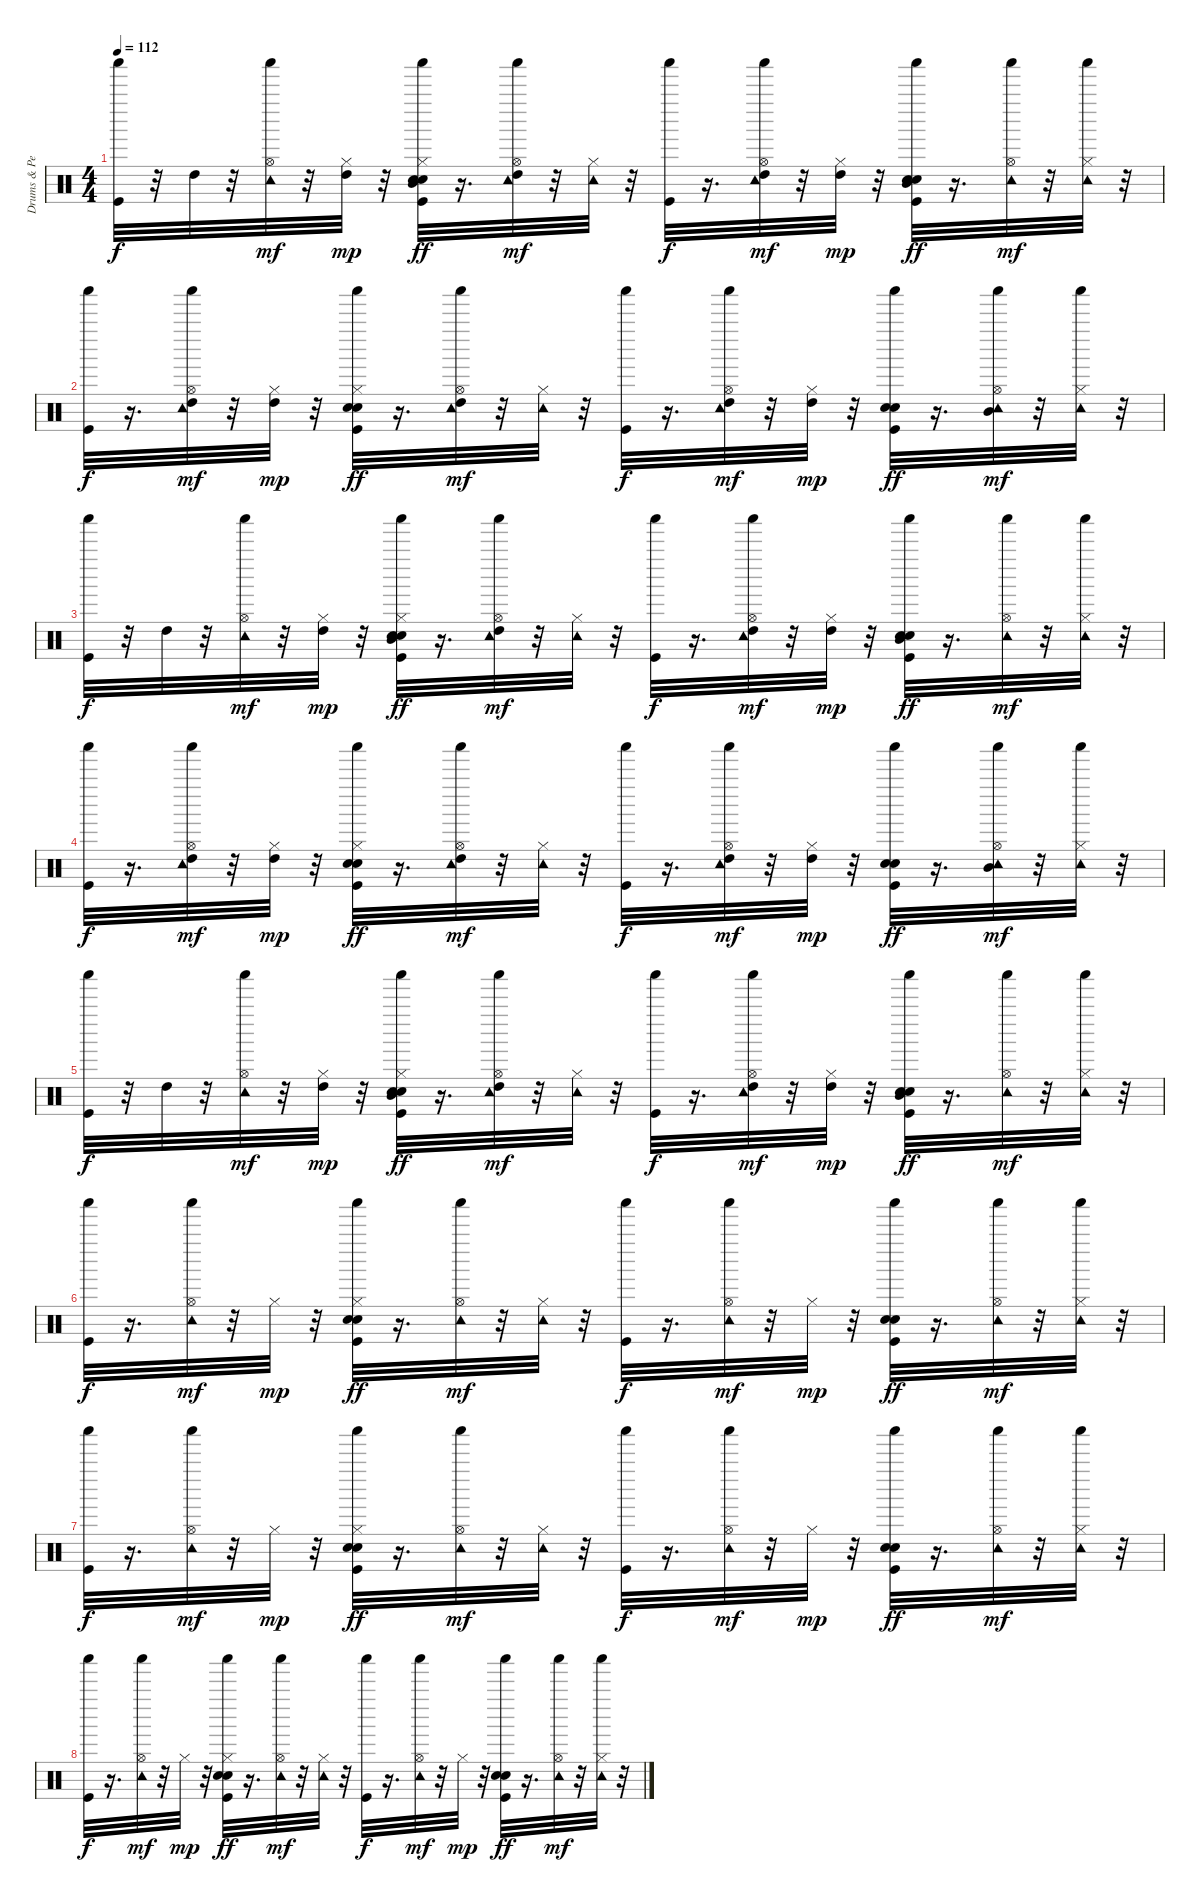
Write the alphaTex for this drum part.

\track ("Drums & Percussion" "Drums & Pe") {instrument percussion}
\staff {score}
\articulation defaults
\ts (4 4)
\tempo 112
\clef neutral
\ks c
("Shaker (hit)" "Kick (hit)").32{dy f} r.32 "High Tom (hit)".32 r.32 ("Shaker (hit)" "Hi-Hat (open)" "Tambourine (hit)").32{dy mf} r.32 ("Hi-Hat (closed)" "High Tom (hit)").32{dy mp} r.32 ("Shaker (hit)" "Snare (hit) 2" "Hi-Hat (closed)" "Hand Clap (hit)" "Mid Tom (hit)" "Kick (hit)").32{dy ff} r.16{d} ("Shaker (hit)" "Hi-Hat (open)" "Tambourine (hit)" "High Tom (hit)").32{dy mf} r.32 ("Hi-Hat (closed)" "Tambourine (hit)").32 r.32 ("Shaker (hit)" "Kick (hit)").32{dy f} r.16{d} ("Shaker (hit)" "Hi-Hat (open)" "Tambourine (hit)" "High Tom (hit)").32{dy mf} r.32 ("Hi-Hat (closed)" "High Tom (hit)").32{dy mp} r.32 ("Shaker (hit)" "Snare (hit) 2" "Hand Clap (hit)" "Mid Tom (hit)" "Kick (hit)").32{dy ff} r.16{d} ("Shaker (hit)" "Hi-Hat (open)" "Tambourine (hit)").32{dy mf} r.32 ("Hi-Hat (closed)" "Shaker (hit)" "Tambourine (hit)").32 r.32 |
("Shaker (hit)" "Kick (hit)").32{dy f} r.16{d} ("Shaker (hit)" "Hi-Hat (open)" "Tambourine (hit)" "High Tom (hit)").32{dy mf} r.32 ("Hi-Hat (closed)" "High Tom (hit)").32{dy mp} r.32 ("Shaker (hit)" "Snare (hit) 2" "Hi-Hat (closed)" "Hand Clap (hit)" "Kick (hit)").32{dy ff} r.16{d} ("Shaker (hit)" "Hi-Hat (open)" "Tambourine (hit)" "High Tom (hit)").32{dy mf} r.32 ("Hi-Hat (closed)" "Tambourine (hit)").32 r.32 ("Shaker (hit)" "Kick (hit)").32{dy f} r.16{d} ("Shaker (hit)" "Hi-Hat (open)" "Tambourine (hit)" "High Tom (hit)").32{dy mf} r.32 ("Hi-Hat (closed)" "High Tom (hit)").32{dy mp} r.32 ("Shaker (hit)" "Snare (hit) 2" "Hand Clap (hit)" "Kick (hit)").32{dy ff} r.16{d} ("Shaker (hit)" "Hi-Hat (open)" "Tambourine (hit)" "Mid Tom (hit)").32{dy mf} r.32 ("Hi-Hat (closed)" "Shaker (hit)" "Tambourine (hit)").32 r.32 |
("Shaker (hit)" "Kick (hit)").32{dy f} r.32 "High Tom (hit)".32 r.32 ("Shaker (hit)" "Hi-Hat (open)" "Tambourine (hit)").32{dy mf} r.32 ("Hi-Hat (closed)" "High Tom (hit)").32{dy mp} r.32 ("Shaker (hit)" "Snare (hit) 2" "Hi-Hat (closed)" "Hand Clap (hit)" "Mid Tom (hit)" "Kick (hit)").32{dy ff} r.16{d} ("Shaker (hit)" "Hi-Hat (open)" "Tambourine (hit)" "High Tom (hit)").32{dy mf} r.32 ("Hi-Hat (closed)" "Tambourine (hit)").32 r.32 ("Shaker (hit)" "Kick (hit)").32{dy f} r.16{d} ("Shaker (hit)" "Hi-Hat (open)" "Tambourine (hit)" "High Tom (hit)").32{dy mf} r.32 ("Hi-Hat (closed)" "High Tom (hit)").32{dy mp} r.32 ("Shaker (hit)" "Snare (hit) 2" "Hand Clap (hit)" "Mid Tom (hit)" "Kick (hit)").32{dy ff} r.16{d} ("Shaker (hit)" "Hi-Hat (open)" "Tambourine (hit)").32{dy mf} r.32 ("Hi-Hat (closed)" "Shaker (hit)" "Tambourine (hit)").32 r.32 |
("Shaker (hit)" "Kick (hit)").32{dy f} r.16{d} ("Shaker (hit)" "Hi-Hat (open)" "Tambourine (hit)" "High Tom (hit)").32{dy mf} r.32 ("Hi-Hat (closed)" "High Tom (hit)").32{dy mp} r.32 ("Shaker (hit)" "Snare (hit) 2" "Hi-Hat (closed)" "Hand Clap (hit)" "Kick (hit)").32{dy ff} r.16{d} ("Shaker (hit)" "Hi-Hat (open)" "Tambourine (hit)" "High Tom (hit)").32{dy mf} r.32 ("Hi-Hat (closed)" "Tambourine (hit)").32 r.32 ("Shaker (hit)" "Kick (hit)").32{dy f} r.16{d} ("Shaker (hit)" "Hi-Hat (open)" "Tambourine (hit)" "High Tom (hit)").32{dy mf} r.32 ("Hi-Hat (closed)" "High Tom (hit)").32{dy mp} r.32 ("Shaker (hit)" "Snare (hit) 2" "Hand Clap (hit)" "Kick (hit)").32{dy ff} r.16{d} ("Shaker (hit)" "Hi-Hat (open)" "Tambourine (hit)" "Mid Tom (hit)").32{dy mf} r.32 ("Hi-Hat (closed)" "Shaker (hit)" "Tambourine (hit)").32 r.32 |
("Shaker (hit)" "Kick (hit)").32{dy f} r.32 "High Tom (hit)".32 r.32 ("Shaker (hit)" "Hi-Hat (open)" "Tambourine (hit)").32{dy mf} r.32 ("Hi-Hat (closed)" "High Tom (hit)").32{dy mp} r.32 ("Shaker (hit)" "Snare (hit) 2" "Hi-Hat (closed)" "Hand Clap (hit)" "Mid Tom (hit)" "Kick (hit)").32{dy ff} r.16{d} ("Shaker (hit)" "Hi-Hat (open)" "Tambourine (hit)" "High Tom (hit)").32{dy mf} r.32 ("Hi-Hat (closed)" "Tambourine (hit)").32 r.32 ("Shaker (hit)" "Kick (hit)").32{dy f} r.16{d} ("Shaker (hit)" "Hi-Hat (open)" "Tambourine (hit)" "High Tom (hit)").32{dy mf} r.32 ("Hi-Hat (closed)" "High Tom (hit)").32{dy mp} r.32 ("Shaker (hit)" "Snare (hit) 2" "Hand Clap (hit)" "Mid Tom (hit)" "Kick (hit)").32{dy ff} r.16{d} ("Shaker (hit)" "Hi-Hat (open)" "Tambourine (hit)").32{dy mf} r.32 ("Hi-Hat (closed)" "Shaker (hit)" "Tambourine (hit)").32 r.32 |
("Shaker (hit)" "Kick (hit)").32{dy f} r.16{d} ("Shaker (hit)" "Hi-Hat (open)" "Tambourine (hit)").32{dy mf} r.32 "Hi-Hat (closed)".32{dy mp} r.32 ("Shaker (hit)" "Snare (hit) 2" "Hi-Hat (closed)" "Hand Clap (hit)" "Kick (hit)").32{dy ff} r.16{d} ("Shaker (hit)" "Hi-Hat (open)" "Tambourine (hit)").32{dy mf} r.32 ("Hi-Hat (closed)" "Tambourine (hit)").32 r.32 ("Shaker (hit)" "Kick (hit)").32{dy f} r.16{d} ("Shaker (hit)" "Hi-Hat (open)" "Tambourine (hit)").32{dy mf} r.32 "Hi-Hat (closed)".32{dy mp} r.32 ("Shaker (hit)" "Snare (hit) 2" "Hand Clap (hit)" "Kick (hit)").32{dy ff} r.16{d} ("Shaker (hit)" "Hi-Hat (open)" "Tambourine (hit)").32{dy mf} r.32 ("Hi-Hat (closed)" "Shaker (hit)" "Tambourine (hit)").32 r.32 |
("Shaker (hit)" "Kick (hit)").32{dy f} r.16{d} ("Shaker (hit)" "Hi-Hat (open)" "Tambourine (hit)").32{dy mf} r.32 "Hi-Hat (closed)".32{dy mp} r.32 ("Shaker (hit)" "Snare (hit) 2" "Hi-Hat (closed)" "Hand Clap (hit)" "Kick (hit)").32{dy ff} r.16{d} ("Shaker (hit)" "Hi-Hat (open)" "Tambourine (hit)").32{dy mf} r.32 ("Hi-Hat (closed)" "Tambourine (hit)").32 r.32 ("Shaker (hit)" "Kick (hit)").32{dy f} r.16{d} ("Shaker (hit)" "Hi-Hat (open)" "Tambourine (hit)").32{dy mf} r.32 "Hi-Hat (closed)".32{dy mp} r.32 ("Shaker (hit)" "Snare (hit) 2" "Hand Clap (hit)" "Kick (hit)").32{dy ff} r.16{d} ("Shaker (hit)" "Hi-Hat (open)" "Tambourine (hit)").32{dy mf} r.32 ("Hi-Hat (closed)" "Shaker (hit)" "Tambourine (hit)").32 r.32 |
("Shaker (hit)" "Kick (hit)").32{dy f} r.16{d} ("Shaker (hit)" "Hi-Hat (open)" "Tambourine (hit)").32{dy mf} r.32 "Hi-Hat (closed)".32{dy mp} r.32 ("Shaker (hit)" "Snare (hit) 2" "Hi-Hat (closed)" "Hand Clap (hit)" "Kick (hit)").32{dy ff} r.16{d} ("Shaker (hit)" "Hi-Hat (open)" "Tambourine (hit)").32{dy mf} r.32 ("Hi-Hat (closed)" "Tambourine (hit)").32 r.32 ("Shaker (hit)" "Kick (hit)").32{dy f} r.16{d} ("Shaker (hit)" "Hi-Hat (open)" "Tambourine (hit)").32{dy mf} r.32 "Hi-Hat (closed)".32{dy mp} r.32 ("Shaker (hit)" "Snare (hit) 2" "Hand Clap (hit)" "Kick (hit)").32{dy ff} r.16{d} ("Shaker (hit)" "Hi-Hat (open)" "Tambourine (hit)").32{dy mf} r.32 ("Hi-Hat (closed)" "Shaker (hit)" "Tambourine (hit)").32 r.32
